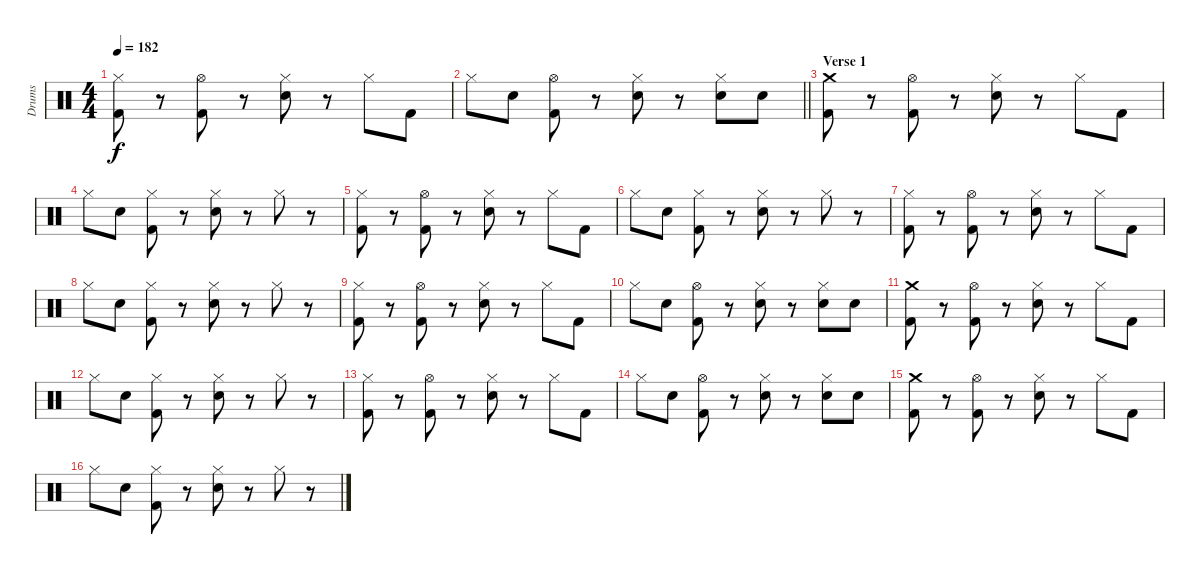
\track ("Drums" "Drums") {instrument percussion}
\staff {score}
\articulation defaults
\ts (4 4)
\tempo 182
\clef neutral
\ks c
("Hi-Hat (closed)" "Kick (hit) 2").8{dy f} r.8 ("Hi-Hat (open)" "Kick (hit) 2").8 r.8 ("Hi-Hat (closed)" "Snare (hit) 2").8 r.8 "Hi-Hat (closed)".8 "Kick (hit) 2".8 |
\barLineRight lightlight "Hi-Hat (closed)".8 "Snare (hit) 2".8
("Hi-Hat (open)" "Kick (hit) 2").8 r.8 ("Hi-Hat (closed)" "Snare (hit) 2").8 r.8 ("Hi-Hat (closed)" "Snare (hit) 2").8 "Snare (hit) 2".8 |
\section ("" "Verse 1")
("Crash medium (hit)" "Kick (hit) 2").8 r.8 ("Hi-Hat (open)" "Kick (hit) 2").8 r.8 ("Hi-Hat (closed)" "Snare (hit) 2").8 r.8 "Hi-Hat (closed)".8 "Kick (hit) 2".8 |
"Hi-Hat (closed)".8 "Snare (hit) 2".8 ("Hi-Hat (closed)" "Kick (hit) 2").8 r.8 ("Hi-Hat (closed)" "Snare (hit) 2").8 r.8 "Hi-Hat (closed)".8 r.8 |
("Hi-Hat (closed)" "Kick (hit) 2").8 r.8 ("Hi-Hat (open)" "Kick (hit) 2").8 r.8 ("Hi-Hat (closed)" "Snare (hit) 2").8 r.8 "Hi-Hat (closed)".8 "Kick (hit) 2".8 |
"Hi-Hat (closed)".8 "Snare (hit) 2".8 ("Hi-Hat (closed)" "Kick (hit) 2").8 r.8 ("Hi-Hat (closed)" "Snare (hit) 2").8 r.8 "Hi-Hat (closed)".8 r.8 |
("Hi-Hat (closed)" "Kick (hit) 2").8 r.8 ("Hi-Hat (open)" "Kick (hit) 2").8 r.8 ("Hi-Hat (closed)" "Snare (hit) 2").8 r.8 "Hi-Hat (closed)".8 "Kick (hit) 2".8 |
"Hi-Hat (closed)".8 "Snare (hit) 2".8 ("Hi-Hat (closed)" "Kick (hit) 2").8 r.8 ("Hi-Hat (closed)" "Snare (hit) 2").8 r.8 "Hi-Hat (closed)".8 r.8 |
("Hi-Hat (closed)" "Kick (hit) 2").8 r.8 ("Hi-Hat (open)" "Kick (hit) 2").8 r.8 ("Hi-Hat (closed)" "Snare (hit) 2").8 r.8 "Hi-Hat (closed)".8 "Kick (hit) 2".8 |
"Hi-Hat (closed)".8 "Snare (hit) 2".8 ("Hi-Hat (open)" "Kick (hit) 2").8 r.8 ("Hi-Hat (closed)" "Snare (hit) 2").8 r.8 ("Hi-Hat (closed)" "Snare (hit) 2").8 "Snare (hit) 2".8 |
("Crash medium (hit)" "Kick (hit) 2").8 r.8 ("Hi-Hat (open)" "Kick (hit) 2").8 r.8 ("Hi-Hat (closed)" "Snare (hit) 2").8 r.8 "Hi-Hat (closed)".8 "Kick (hit) 2".8 |
"Hi-Hat (closed)".8 "Snare (hit) 2".8 ("Hi-Hat (closed)" "Kick (hit) 2").8 r.8 ("Hi-Hat (closed)" "Snare (hit) 2").8 r.8 "Hi-Hat (closed)".8 r.8 |
("Hi-Hat (closed)" "Kick (hit) 2").8 r.8 ("Hi-Hat (open)" "Kick (hit) 2").8 r.8 ("Hi-Hat (closed)" "Snare (hit) 2").8 r.8 "Hi-Hat (closed)".8 "Kick (hit) 2".8 |
"Hi-Hat (closed)".8 "Snare (hit) 2".8 ("Hi-Hat (open)" "Kick (hit) 2").8 r.8 ("Hi-Hat (closed)" "Snare (hit) 2").8 r.8 ("Hi-Hat (closed)" "Snare (hit) 2").8 "Snare (hit) 2".8 |
("Crash medium (hit)" "Kick (hit) 2").8 r.8 ("Hi-Hat (open)" "Kick (hit) 2").8 r.8 ("Hi-Hat (closed)" "Snare (hit) 2").8 r.8 "Hi-Hat (closed)".8 "Kick (hit) 2".8 |
"Hi-Hat (closed)".8 "Snare (hit) 2".8 ("Hi-Hat (closed)" "Kick (hit) 2").8 r.8 ("Hi-Hat (closed)" "Snare (hit) 2").8 r.8 "Hi-Hat (closed)".8 r.8
